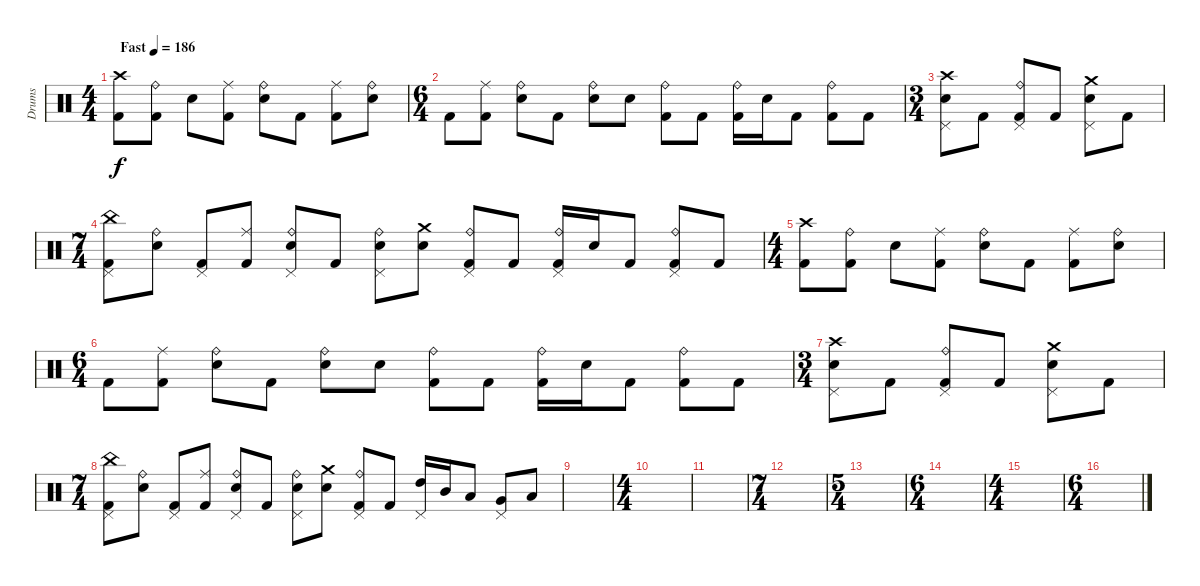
\track ("Drums" "Drums") {instrument percussion}
\staff
\articulation defaults
\ts (4 4)
\tempo (186 "Fast")
\clef neutral
\ks c
("Crash high (hit)" "Kick (hit) 2").8{dy f} ("Ride (bell)" "Kick (hit) 2").8 "Electric Snare (hit)".8 ("Ride (middle)" "Kick (hit) 2").8 ("Ride (bell)" "Electric Snare (hit)").8 "Kick (hit) 2".8 ("Ride (middle)" "Kick (hit) 2").8 ("Ride (bell)" "Electric Snare (hit)").8 |
\ts (6 4)
"Kick (hit) 2".8 ("Ride (middle)" "Kick (hit) 2").8 ("Ride (bell)" "Electric Snare (hit)").8 "Kick (hit) 2".8 ("Ride (bell)" "Electric Snare (hit)").8 "Electric Snare (hit)".8 ("Ride (bell)" "Kick (hit) 2").8 "Kick (hit) 2".8 ("Ride (bell)" "Kick (hit) 2").16 "Electric Snare (hit)".16 "Kick (hit) 2".8 ("Ride (bell)" "Kick (hit) 2").8 "Kick (hit) 2".8 |
\ts (3 4)
("Pedal Hi-Hat (hit)" "Crash high (hit)" "Electric Snare (hit)").8 "Kick (hit) 2".8 ("Pedal Hi-Hat (hit)" "Ride (bell)" "Kick (hit) 2").8 "Kick (hit) 2".8 ("Pedal Hi-Hat (hit)" "Crash medium (hit)" "Electric Snare (hit)").8 "Kick (hit) 2".8 |
\ts (7 4)
("Pedal Hi-Hat (hit)" "China (hit)" "Kick (hit) 2").8 ("Ride (bell)" "Electric Snare (hit)").8 ("Pedal Hi-Hat (hit)" "Kick (hit) 2").8 ("Ride (middle)" "Kick (hit) 2").8 ("Pedal Hi-Hat (hit)" "Ride (bell)" "Electric Snare (hit)").8 "Kick (hit) 2".8 ("Pedal Hi-Hat (hit)" "Ride (bell)" "Electric Snare (hit)").8 ("Crash medium (hit)" "Electric Snare (hit)").8 ("Pedal Hi-Hat (hit)" "Ride (bell)" "Kick (hit) 2").8 "Kick (hit) 2".8 ("Pedal Hi-Hat (hit)" "Ride (bell)" "Kick (hit) 2").16 "Electric Snare (hit)".16 "Kick (hit) 2".8 ("Pedal Hi-Hat (hit)" "Ride (bell)" "Kick (hit) 2").8 "Kick (hit) 2".8 |
\ts (4 4)
("Crash high (hit)" "Kick (hit) 2").8 ("Ride (bell)" "Kick (hit) 2").8 "Electric Snare (hit)".8 ("Ride (middle)" "Kick (hit) 2").8 ("Ride (bell)" "Electric Snare (hit)").8 "Kick (hit) 2".8 ("Ride (middle)" "Kick (hit) 2").8 ("Ride (bell)" "Electric Snare (hit)").8 |
\ts (6 4)
"Kick (hit) 2".8 ("Ride (middle)" "Kick (hit) 2").8 ("Ride (bell)" "Electric Snare (hit)").8 "Kick (hit) 2".8 ("Ride (bell)" "Electric Snare (hit)").8 "Electric Snare (hit)".8 ("Ride (bell)" "Kick (hit) 2").8 "Kick (hit) 2".8 ("Ride (bell)" "Kick (hit) 2").16 "Electric Snare (hit)".16 "Kick (hit) 2".8 ("Ride (bell)" "Kick (hit) 2").8 "Kick (hit) 2".8 |
\ts (3 4)
("Pedal Hi-Hat (hit)" "Crash high (hit)" "Electric Snare (hit)").8 "Kick (hit) 2".8 ("Pedal Hi-Hat (hit)" "Ride (bell)" "Kick (hit) 2").8 "Kick (hit) 2".8 ("Pedal Hi-Hat (hit)" "Crash medium (hit)" "Electric Snare (hit)").8 "Kick (hit) 2".8 |
\ts (7 4)
("Pedal Hi-Hat (hit)" "China (hit)" "Kick (hit) 2").8 ("Ride (bell)" "Electric Snare (hit)").8 ("Pedal Hi-Hat (hit)" "Kick (hit) 2").8 ("Ride (middle)" "Kick (hit) 2").8 ("Pedal Hi-Hat (hit)" "Ride (bell)" "Electric Snare (hit)").8 "Kick (hit) 2".8 ("Pedal Hi-Hat (hit)" "Ride (bell)" "Electric Snare (hit)").8 ("Crash medium (hit)" "Electric Snare (hit)").8 ("Pedal Hi-Hat (hit)" "Ride (bell)" "Kick (hit) 2").8 "Kick (hit) 2".8 ("Pedal Hi-Hat (hit)" "High Tom (hit)").16 "Mid Tom (hit)".16 "Low Tom (hit)".8 ("Pedal Hi-Hat (hit)" "Very Low Tom (hit)").8 "Low Floor Tom (hit)".8 |
|
\ts (4 4)
|
|
\ts (7 4)
|
\ts (5 4)
|
\ts (6 4)
|
\ts (4 4)
|
\ts (6 4)
